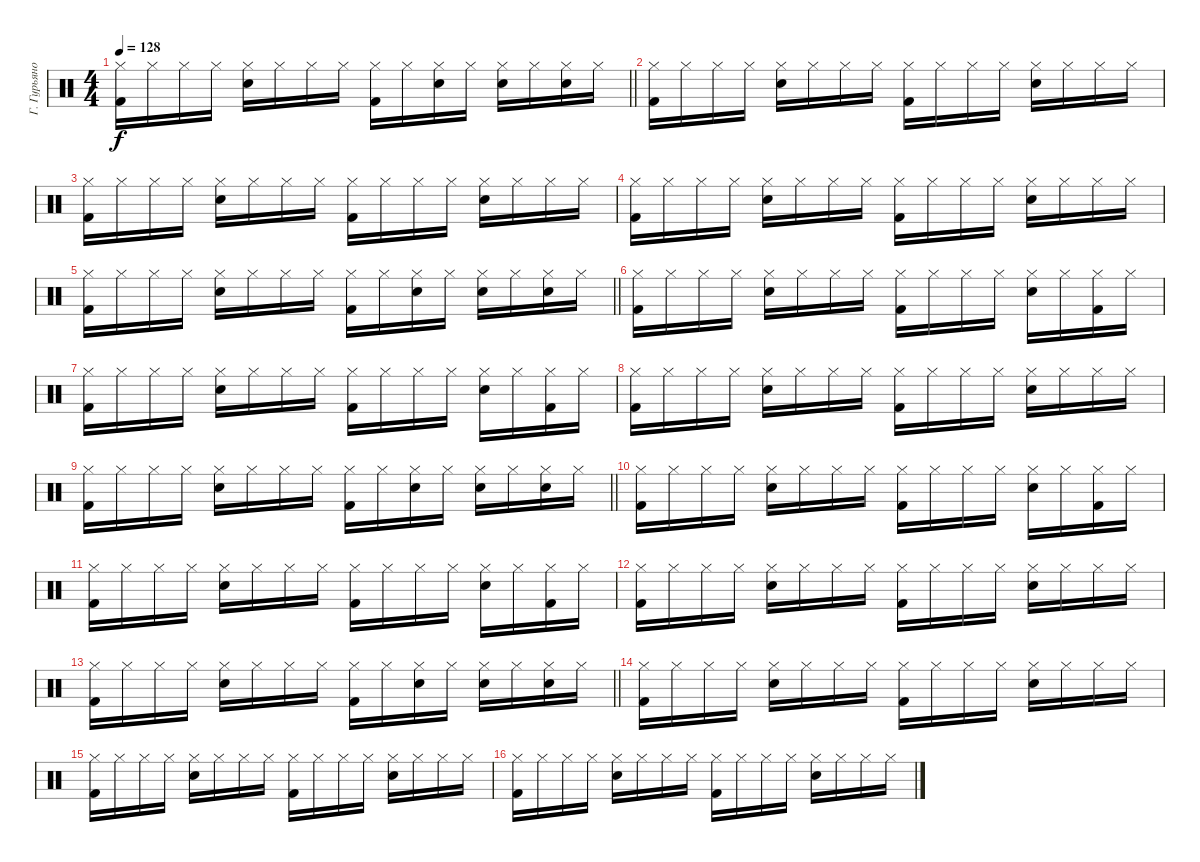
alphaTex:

\track ("Г. Гурьянов" "Г. Гурьяно") {instrument percussion}
\staff
\articulation defaults
\ts (4 4)
\tempo 128
\clef neutral
\barLineRight lightlight
\ks c
("Hi-Hat (closed)" "Kick (hit) 2").16{dy f} "Hi-Hat (closed)".16 "Hi-Hat (closed)".16 "Hi-Hat (closed)".16 ("Hi-Hat (closed)" "Snare (hit) 2").16 "Hi-Hat (closed)".16 "Hi-Hat (closed)".16 "Hi-Hat (closed)".16 ("Hi-Hat (closed)" "Kick (hit) 2").16 "Hi-Hat (closed)".16 ("Hi-Hat (closed)" "Snare (hit) 2").16 "Hi-Hat (closed)".16 ("Hi-Hat (closed)" "Snare (hit) 2").16 "Hi-Hat (closed)".16 ("Hi-Hat (closed)" "Snare (hit) 2").16 "Hi-Hat (closed)".16 |
("Hi-Hat (closed)" "Kick (hit) 2").16 "Hi-Hat (closed)".16 "Hi-Hat (closed)".16 "Hi-Hat (closed)".16 ("Hi-Hat (closed)" "Snare (hit) 2").16 "Hi-Hat (closed)".16 "Hi-Hat (closed)".16 "Hi-Hat (closed)".16 ("Hi-Hat (closed)" "Kick (hit) 2").16 "Hi-Hat (closed)".16 "Hi-Hat (closed)".16 "Hi-Hat (closed)".16 ("Hi-Hat (closed)" "Snare (hit) 2").16 "Hi-Hat (closed)".16 "Hi-Hat (closed)".16 "Hi-Hat (closed)".16 |
("Hi-Hat (closed)" "Kick (hit) 2").16 "Hi-Hat (closed)".16 "Hi-Hat (closed)".16 "Hi-Hat (closed)".16 ("Hi-Hat (closed)" "Snare (hit) 2").16 "Hi-Hat (closed)".16 "Hi-Hat (closed)".16 "Hi-Hat (closed)".16 ("Hi-Hat (closed)" "Kick (hit) 2").16 "Hi-Hat (closed)".16 "Hi-Hat (closed)".16 "Hi-Hat (closed)".16 ("Hi-Hat (closed)" "Snare (hit) 2").16 "Hi-Hat (closed)".16 "Hi-Hat (closed)".16 "Hi-Hat (closed)".16 |
("Hi-Hat (closed)" "Kick (hit) 2").16 "Hi-Hat (closed)".16 "Hi-Hat (closed)".16 "Hi-Hat (closed)".16 ("Hi-Hat (closed)" "Snare (hit) 2").16 "Hi-Hat (closed)".16 "Hi-Hat (closed)".16 "Hi-Hat (closed)".16 ("Hi-Hat (closed)" "Kick (hit) 2").16 "Hi-Hat (closed)".16 "Hi-Hat (closed)".16 "Hi-Hat (closed)".16 ("Hi-Hat (closed)" "Snare (hit) 2").16 "Hi-Hat (closed)".16 "Hi-Hat (closed)".16 "Hi-Hat (closed)".16 |
\barLineRight lightlight
("Hi-Hat (closed)" "Kick (hit) 2").16 "Hi-Hat (closed)".16 "Hi-Hat (closed)".16 "Hi-Hat (closed)".16 ("Hi-Hat (closed)" "Snare (hit) 2").16 "Hi-Hat (closed)".16 "Hi-Hat (closed)".16 "Hi-Hat (closed)".16 ("Hi-Hat (closed)" "Kick (hit) 2").16 "Hi-Hat (closed)".16 ("Hi-Hat (closed)" "Snare (hit) 2").16 "Hi-Hat (closed)".16 ("Hi-Hat (closed)" "Snare (hit) 2").16 "Hi-Hat (closed)".16 ("Hi-Hat (closed)" "Snare (hit) 2").16 "Hi-Hat (closed)".16 |
("Hi-Hat (closed)" "Kick (hit) 2").16 "Hi-Hat (closed)".16 "Hi-Hat (closed)".16 "Hi-Hat (closed)".16 ("Hi-Hat (closed)" "Snare (hit) 2").16 "Hi-Hat (closed)".16 "Hi-Hat (closed)".16 "Hi-Hat (closed)".16 ("Hi-Hat (closed)" "Kick (hit) 2").16 "Hi-Hat (closed)".16 "Hi-Hat (closed)".16 "Hi-Hat (closed)".16 ("Hi-Hat (closed)" "Snare (hit) 2").16 "Hi-Hat (closed)".16 ("Hi-Hat (closed)" "Kick (hit) 2").16 "Hi-Hat (closed)".16 |
("Hi-Hat (closed)" "Kick (hit) 2").16 "Hi-Hat (closed)".16 "Hi-Hat (closed)".16 "Hi-Hat (closed)".16 ("Hi-Hat (closed)" "Snare (hit) 2").16 "Hi-Hat (closed)".16 "Hi-Hat (closed)".16 "Hi-Hat (closed)".16 ("Hi-Hat (closed)" "Kick (hit) 2").16 "Hi-Hat (closed)".16 "Hi-Hat (closed)".16 "Hi-Hat (closed)".16 ("Hi-Hat (closed)" "Snare (hit) 2").16 "Hi-Hat (closed)".16 ("Hi-Hat (closed)" "Kick (hit) 2").16 "Hi-Hat (closed)".16 |
("Hi-Hat (closed)" "Kick (hit) 2").16 "Hi-Hat (closed)".16 "Hi-Hat (closed)".16 "Hi-Hat (closed)".16 ("Hi-Hat (closed)" "Snare (hit) 2").16 "Hi-Hat (closed)".16 "Hi-Hat (closed)".16 "Hi-Hat (closed)".16 ("Hi-Hat (closed)" "Kick (hit) 2").16 "Hi-Hat (closed)".16 "Hi-Hat (closed)".16 "Hi-Hat (closed)".16 ("Hi-Hat (closed)" "Snare (hit) 2").16 "Hi-Hat (closed)".16 "Hi-Hat (closed)".16 "Hi-Hat (closed)".16 |
\barLineRight lightlight
("Hi-Hat (closed)" "Kick (hit) 2").16 "Hi-Hat (closed)".16 "Hi-Hat (closed)".16 "Hi-Hat (closed)".16 ("Hi-Hat (closed)" "Snare (hit) 2").16 "Hi-Hat (closed)".16 "Hi-Hat (closed)".16 "Hi-Hat (closed)".16 ("Hi-Hat (closed)" "Kick (hit) 2").16 "Hi-Hat (closed)".16 ("Hi-Hat (closed)" "Snare (hit) 2").16 "Hi-Hat (closed)".16 ("Hi-Hat (closed)" "Snare (hit) 2").16 "Hi-Hat (closed)".16 ("Hi-Hat (closed)" "Snare (hit) 2").16 "Hi-Hat (closed)".16 |
("Hi-Hat (closed)" "Kick (hit) 2").16 "Hi-Hat (closed)".16 "Hi-Hat (closed)".16 "Hi-Hat (closed)".16 ("Hi-Hat (closed)" "Snare (hit) 2").16 "Hi-Hat (closed)".16 "Hi-Hat (closed)".16 "Hi-Hat (closed)".16 ("Hi-Hat (closed)" "Kick (hit) 2").16 "Hi-Hat (closed)".16 "Hi-Hat (closed)".16 "Hi-Hat (closed)".16 ("Hi-Hat (closed)" "Snare (hit) 2").16 "Hi-Hat (closed)".16 ("Hi-Hat (closed)" "Kick (hit) 2").16 "Hi-Hat (closed)".16 |
("Hi-Hat (closed)" "Kick (hit) 2").16 "Hi-Hat (closed)".16 "Hi-Hat (closed)".16 "Hi-Hat (closed)".16 ("Hi-Hat (closed)" "Snare (hit) 2").16 "Hi-Hat (closed)".16 "Hi-Hat (closed)".16 "Hi-Hat (closed)".16 ("Hi-Hat (closed)" "Kick (hit) 2").16 "Hi-Hat (closed)".16 "Hi-Hat (closed)".16 "Hi-Hat (closed)".16 ("Hi-Hat (closed)" "Snare (hit) 2").16 "Hi-Hat (closed)".16 ("Hi-Hat (closed)" "Kick (hit) 2").16 "Hi-Hat (closed)".16 |
("Hi-Hat (closed)" "Kick (hit) 2").16 "Hi-Hat (closed)".16 "Hi-Hat (closed)".16 "Hi-Hat (closed)".16 ("Hi-Hat (closed)" "Snare (hit) 2").16 "Hi-Hat (closed)".16 "Hi-Hat (closed)".16 "Hi-Hat (closed)".16 ("Hi-Hat (closed)" "Kick (hit) 2").16 "Hi-Hat (closed)".16 "Hi-Hat (closed)".16 "Hi-Hat (closed)".16 ("Hi-Hat (closed)" "Snare (hit) 2").16 "Hi-Hat (closed)".16 "Hi-Hat (closed)".16 "Hi-Hat (closed)".16 |
\barLineRight lightlight
("Hi-Hat (closed)" "Kick (hit) 2").16 "Hi-Hat (closed)".16 "Hi-Hat (closed)".16 "Hi-Hat (closed)".16 ("Hi-Hat (closed)" "Snare (hit) 2").16 "Hi-Hat (closed)".16 "Hi-Hat (closed)".16 "Hi-Hat (closed)".16 ("Hi-Hat (closed)" "Kick (hit) 2").16 "Hi-Hat (closed)".16 ("Hi-Hat (closed)" "Snare (hit) 2").16 "Hi-Hat (closed)".16 ("Hi-Hat (closed)" "Snare (hit) 2").16 "Hi-Hat (closed)".16 ("Hi-Hat (closed)" "Snare (hit) 2").16 "Hi-Hat (closed)".16 |
("Hi-Hat (closed)" "Kick (hit) 2").16 "Hi-Hat (closed)".16 "Hi-Hat (closed)".16 "Hi-Hat (closed)".16 ("Hi-Hat (closed)" "Snare (hit) 2").16 "Hi-Hat (closed)".16 "Hi-Hat (closed)".16 "Hi-Hat (closed)".16 ("Hi-Hat (closed)" "Kick (hit) 2").16 "Hi-Hat (closed)".16 "Hi-Hat (closed)".16 "Hi-Hat (closed)".16 ("Hi-Hat (closed)" "Snare (hit) 2").16 "Hi-Hat (closed)".16 "Hi-Hat (closed)".16 "Hi-Hat (closed)".16 |
("Hi-Hat (closed)" "Kick (hit) 2").16 "Hi-Hat (closed)".16 "Hi-Hat (closed)".16 "Hi-Hat (closed)".16 ("Hi-Hat (closed)" "Snare (hit) 2").16 "Hi-Hat (closed)".16 "Hi-Hat (closed)".16 "Hi-Hat (closed)".16 ("Hi-Hat (closed)" "Kick (hit) 2").16 "Hi-Hat (closed)".16 "Hi-Hat (closed)".16 "Hi-Hat (closed)".16 ("Hi-Hat (closed)" "Snare (hit) 2").16 "Hi-Hat (closed)".16 "Hi-Hat (closed)".16 "Hi-Hat (closed)".16 |
("Hi-Hat (closed)" "Kick (hit) 2").16 "Hi-Hat (closed)".16 "Hi-Hat (closed)".16 "Hi-Hat (closed)".16 ("Hi-Hat (closed)" "Snare (hit) 2").16 "Hi-Hat (closed)".16 "Hi-Hat (closed)".16 "Hi-Hat (closed)".16 ("Hi-Hat (closed)" "Kick (hit) 2").16 "Hi-Hat (closed)".16 "Hi-Hat (closed)".16 "Hi-Hat (closed)".16 ("Hi-Hat (closed)" "Snare (hit) 2").16 "Hi-Hat (closed)".16 "Hi-Hat (closed)".16 "Hi-Hat (closed)".16
